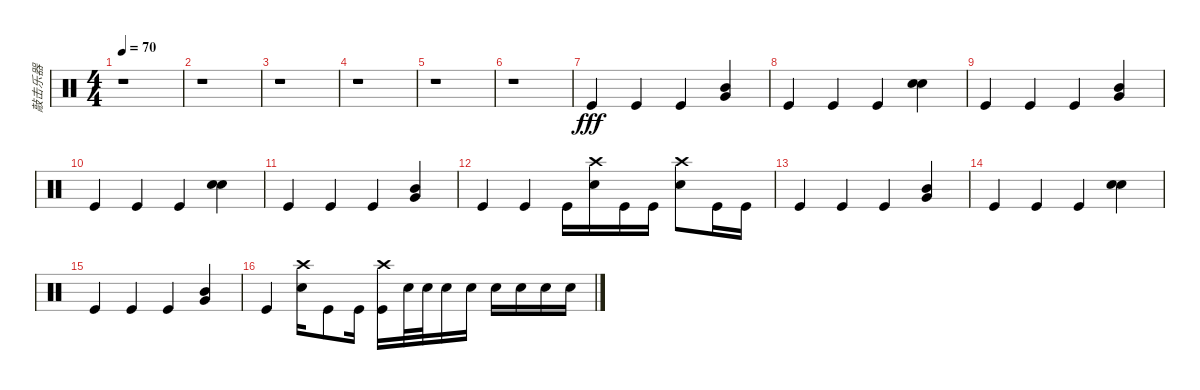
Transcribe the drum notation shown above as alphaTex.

\track ("敲击乐器" "敲击乐器") {instrument percussion}
\staff {score}
\articulation defaults
\ts (4 4)
\tempo 70
\clef neutral
\ks c
r.1{dy fff} |
r.1 |
r.1 |
r.1 |
r.1 |
r.1 |
"Kick (hit)".4 "Kick (hit)".4 "Kick (hit)".4 ("Very Low Tom (hit)" "Mid Tom (hit)").4 |
"Kick (hit)".4 "Kick (hit)".4 "Kick (hit)".4 ("Snare (hit) 2" "Snare (hit) 2").4 |
"Kick (hit)".4 "Kick (hit)".4 "Kick (hit)".4 ("Very Low Tom (hit)" "Mid Tom (hit)").4 |
"Kick (hit)".4 "Kick (hit)".4 "Kick (hit)".4 ("Snare (hit) 2" "Snare (hit) 2").4 |
"Kick (hit)".4 "Kick (hit)".4 "Kick (hit)".4 ("Very Low Tom (hit)" "Mid Tom (hit)").4 |
"Kick (hit)".4 "Kick (hit)".4 "Kick (hit)".16 ("Crash high (hit)" "Snare (hit) 2").16 "Kick (hit)".16 "Kick (hit)".16 ("Crash high (hit)" "Snare (hit) 2").8 "Kick (hit)".16 "Kick (hit)".16 |
"Kick (hit)".4 "Kick (hit)".4 "Kick (hit)".4 ("Very Low Tom (hit)" "Mid Tom (hit)").4 |
"Kick (hit)".4 "Kick (hit)".4 "Kick (hit)".4 ("Snare (hit) 2" "Snare (hit) 2").4 |
"Kick (hit)".4 "Kick (hit)".4 "Kick (hit)".4 ("Very Low Tom (hit)" "Mid Tom (hit)").4 |
"Kick (hit)".4 ("Crash high (hit)" "Snare (hit) 2").16 "Kick (hit)".8 "Kick (hit)".16 ("Crash high (hit)" "Kick (hit)").16 "Snare (hit) 2".32 "Snare (hit) 2".32 "Snare (hit) 2".16 "Snare (hit) 2".16 "Snare (hit) 2".16 "Snare (hit) 2".16 "Snare (hit) 2".16 "Snare (hit) 2".16
